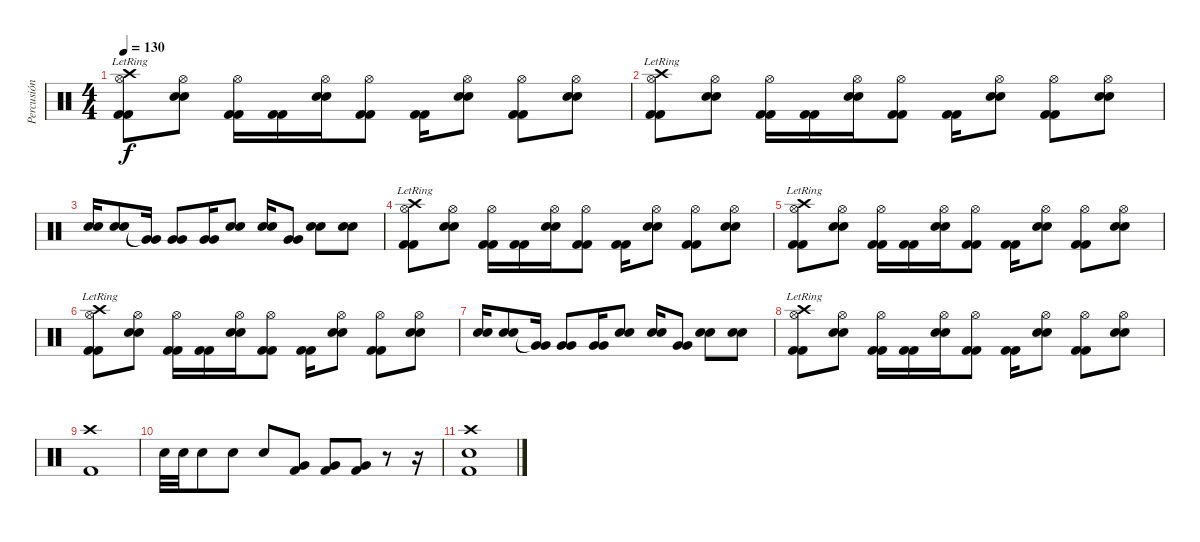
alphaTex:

\track ("Percusión" "Percusión") {instrument percussion}
\staff {score}
\articulation defaults
\ts (4 4)
\tempo 130
\clef neutral
\ks c
("Kick (hit) 2" "Kick (hit) 2" "Hi-Hat (open)" "Crash high (hit)"{lr}).8{dy f} ("Snare (hit) 2" "Snare (hit) 2" "Hi-Hat (open)").8 ("Kick (hit) 2" "Kick (hit) 2" "Hi-Hat (open)").16 ("Kick (hit) 2" "Kick (hit) 2").16 ("Snare (hit) 2" "Snare (hit) 2" "Hi-Hat (open)").16 ("Kick (hit) 2" "Kick (hit) 2" "Hi-Hat (open)").8 ("Kick (hit) 2" "Kick (hit) 2").16 ("Snare (hit) 2" "Snare (hit) 2" "Hi-Hat (open)").8 ("Kick (hit) 2" "Kick (hit) 2" "Hi-Hat (open)").8 ("Snare (hit) 2" "Snare (hit) 2" "Hi-Hat (open)").8 |
("Kick (hit) 2" "Kick (hit) 2" "Hi-Hat (open)" "Crash high (hit)"{lr}).8 ("Snare (hit) 2" "Snare (hit) 2" "Hi-Hat (open)").8 ("Kick (hit) 2" "Kick (hit) 2" "Hi-Hat (open)").16 ("Kick (hit) 2" "Kick (hit) 2").16 ("Snare (hit) 2" "Snare (hit) 2" "Hi-Hat (open)").16 ("Kick (hit) 2" "Kick (hit) 2" "Hi-Hat (open)").8 ("Kick (hit) 2" "Kick (hit) 2").16 ("Snare (hit) 2" "Snare (hit) 2" "Hi-Hat (open)").8 ("Kick (hit) 2" "Kick (hit) 2" "Hi-Hat (open)").8 ("Snare (hit) 2" "Snare (hit) 2" "Hi-Hat (open)").8 |
("Snare (hit) 2" "Snare (hit) 2").16 ("Snare (hit) 2" "Snare (hit) 2").8 ("Very Low Tom (hit)"{t} "Very Low Tom (hit)"{t}).16 ("Very Low Tom (hit)" "Very Low Tom (hit)").8 ("Very Low Tom (hit)" "Very Low Tom (hit)").16 ("Snare (hit) 2" "Snare (hit) 2").8 ("Snare (hit) 2" "Snare (hit) 2").16 ("Very Low Tom (hit)" "Very Low Tom (hit)").8 ("Snare (hit) 2" "Snare (hit) 2").8 ("Snare (hit) 2" "Snare (hit) 2").8 |
("Kick (hit) 2" "Kick (hit) 2" "Hi-Hat (open)" "Crash high (hit)"{lr}).8 ("Snare (hit) 2" "Snare (hit) 2" "Hi-Hat (open)").8 ("Kick (hit) 2" "Kick (hit) 2" "Hi-Hat (open)").16 ("Kick (hit) 2" "Kick (hit) 2").16 ("Snare (hit) 2" "Snare (hit) 2" "Hi-Hat (open)").16 ("Kick (hit) 2" "Kick (hit) 2" "Hi-Hat (open)").8 ("Kick (hit) 2" "Kick (hit) 2").16 ("Snare (hit) 2" "Snare (hit) 2" "Hi-Hat (open)").8 ("Kick (hit) 2" "Kick (hit) 2" "Hi-Hat (open)").8 ("Snare (hit) 2" "Snare (hit) 2" "Hi-Hat (open)").8 |
("Kick (hit) 2" "Kick (hit) 2" "Hi-Hat (open)" "Crash high (hit)"{lr}).8 ("Snare (hit) 2" "Snare (hit) 2" "Hi-Hat (open)").8 ("Kick (hit) 2" "Kick (hit) 2" "Hi-Hat (open)").16 ("Kick (hit) 2" "Kick (hit) 2").16 ("Snare (hit) 2" "Snare (hit) 2" "Hi-Hat (open)").16 ("Kick (hit) 2" "Kick (hit) 2" "Hi-Hat (open)").8 ("Kick (hit) 2" "Kick (hit) 2").16 ("Snare (hit) 2" "Snare (hit) 2" "Hi-Hat (open)").8 ("Kick (hit) 2" "Kick (hit) 2" "Hi-Hat (open)").8 ("Snare (hit) 2" "Snare (hit) 2" "Hi-Hat (open)").8 |
("Kick (hit) 2" "Kick (hit) 2" "Hi-Hat (open)" "Crash high (hit)"{lr}).8 ("Snare (hit) 2" "Snare (hit) 2" "Hi-Hat (open)").8 ("Kick (hit) 2" "Kick (hit) 2" "Hi-Hat (open)").16 ("Kick (hit) 2" "Kick (hit) 2").16 ("Snare (hit) 2" "Snare (hit) 2" "Hi-Hat (open)").16 ("Kick (hit) 2" "Kick (hit) 2" "Hi-Hat (open)").8 ("Kick (hit) 2" "Kick (hit) 2").16 ("Snare (hit) 2" "Snare (hit) 2" "Hi-Hat (open)").8 ("Kick (hit) 2" "Kick (hit) 2" "Hi-Hat (open)").8 ("Snare (hit) 2" "Snare (hit) 2" "Hi-Hat (open)").8 |
("Snare (hit) 2" "Snare (hit) 2").16 ("Snare (hit) 2" "Snare (hit) 2").8 ("Very Low Tom (hit)"{t} "Very Low Tom (hit)"{t}).16 ("Very Low Tom (hit)" "Very Low Tom (hit)").8 ("Very Low Tom (hit)" "Very Low Tom (hit)").16 ("Snare (hit) 2" "Snare (hit) 2").8 ("Snare (hit) 2" "Snare (hit) 2").16 ("Very Low Tom (hit)" "Very Low Tom (hit)").8 ("Snare (hit) 2" "Snare (hit) 2").8 ("Snare (hit) 2" "Snare (hit) 2").8 |
("Kick (hit) 2" "Kick (hit) 2" "Hi-Hat (open)" "Crash high (hit)"{lr}).8 ("Snare (hit) 2" "Snare (hit) 2" "Hi-Hat (open)").8 ("Kick (hit) 2" "Kick (hit) 2" "Hi-Hat (open)").16 ("Kick (hit) 2" "Kick (hit) 2").16 ("Snare (hit) 2" "Snare (hit) 2" "Hi-Hat (open)").16 ("Kick (hit) 2" "Kick (hit) 2" "Hi-Hat (open)").8 ("Kick (hit) 2" "Kick (hit) 2").16 ("Snare (hit) 2" "Snare (hit) 2" "Hi-Hat (open)").8 ("Kick (hit) 2" "Kick (hit) 2" "Hi-Hat (open)").8 ("Snare (hit) 2" "Snare (hit) 2" "Hi-Hat (open)").8 |
("Crash high (hit)" "Kick (hit) 2").1 |
"Snare (hit) 2".32 "Snare (hit) 2".32 "Snare (hit) 2".8 "Snare (hit) 2".8 "Snare (hit) 2".8 ("Very Low Tom (hit)" "Kick (hit) 2").8 ("Very Low Tom (hit)" "Kick (hit) 2").8 ("Very Low Tom (hit)" "Kick (hit) 2").8 r.8 r.16 |
("Crash high (hit)" "Snare (hit) 2" "Kick (hit) 2").1
